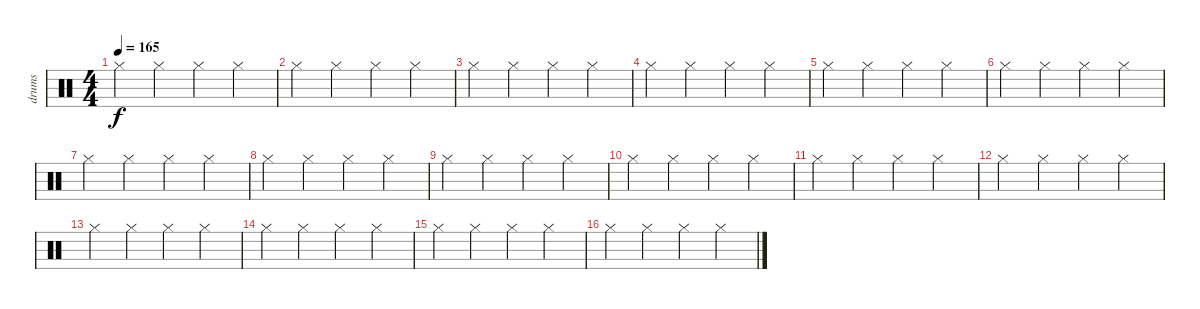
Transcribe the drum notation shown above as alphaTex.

\track ("drums" "drums") {instrument percussion}
\staff {score}
\articulation defaults
\ts (4 4)
\tempo 165
\clef neutral
\ks c "Hi-Hat (closed)".4{dy f} "Hi-Hat (closed)".4 "Hi-Hat (closed)".4 "Hi-Hat (closed)".4
|
"Hi-Hat (closed)".4 "Hi-Hat (closed)".4 "Hi-Hat (closed)".4 "Hi-Hat (closed)".4 |
"Hi-Hat (closed)".4 "Hi-Hat (closed)".4 "Hi-Hat (closed)".4 "Hi-Hat (closed)".4 |
"Hi-Hat (closed)".4 "Hi-Hat (closed)".4 "Hi-Hat (closed)".4 "Hi-Hat (closed)".4 |
"Hi-Hat (closed)".4 "Hi-Hat (closed)".4 "Hi-Hat (closed)".4 "Hi-Hat (closed)".4 |
"Hi-Hat (closed)".4 "Hi-Hat (closed)".4 "Hi-Hat (closed)".4 "Hi-Hat (closed)".4 |
"Hi-Hat (closed)".4 "Hi-Hat (closed)".4 "Hi-Hat (closed)".4 "Hi-Hat (closed)".4 |
"Hi-Hat (closed)".4 "Hi-Hat (closed)".4 "Hi-Hat (closed)".4 "Hi-Hat (closed)".4 |
"Hi-Hat (closed)".4 "Hi-Hat (closed)".4 "Hi-Hat (closed)".4 "Hi-Hat (closed)".4 |
"Hi-Hat (closed)".4 "Hi-Hat (closed)".4 "Hi-Hat (closed)".4 "Hi-Hat (closed)".4 |
"Hi-Hat (closed)".4 "Hi-Hat (closed)".4 "Hi-Hat (closed)".4 "Hi-Hat (closed)".4 |
"Hi-Hat (closed)".4 "Hi-Hat (closed)".4 "Hi-Hat (closed)".4 "Hi-Hat (closed)".4 |
"Hi-Hat (closed)".4 "Hi-Hat (closed)".4 "Hi-Hat (closed)".4 "Hi-Hat (closed)".4 |
"Hi-Hat (closed)".4 "Hi-Hat (closed)".4 "Hi-Hat (closed)".4 "Hi-Hat (closed)".4 |
"Hi-Hat (closed)".4 "Hi-Hat (closed)".4 "Hi-Hat (closed)".4 "Hi-Hat (closed)".4 |
"Hi-Hat (closed)".4 "Hi-Hat (closed)".4 "Hi-Hat (closed)".4 "Hi-Hat (closed)".4
